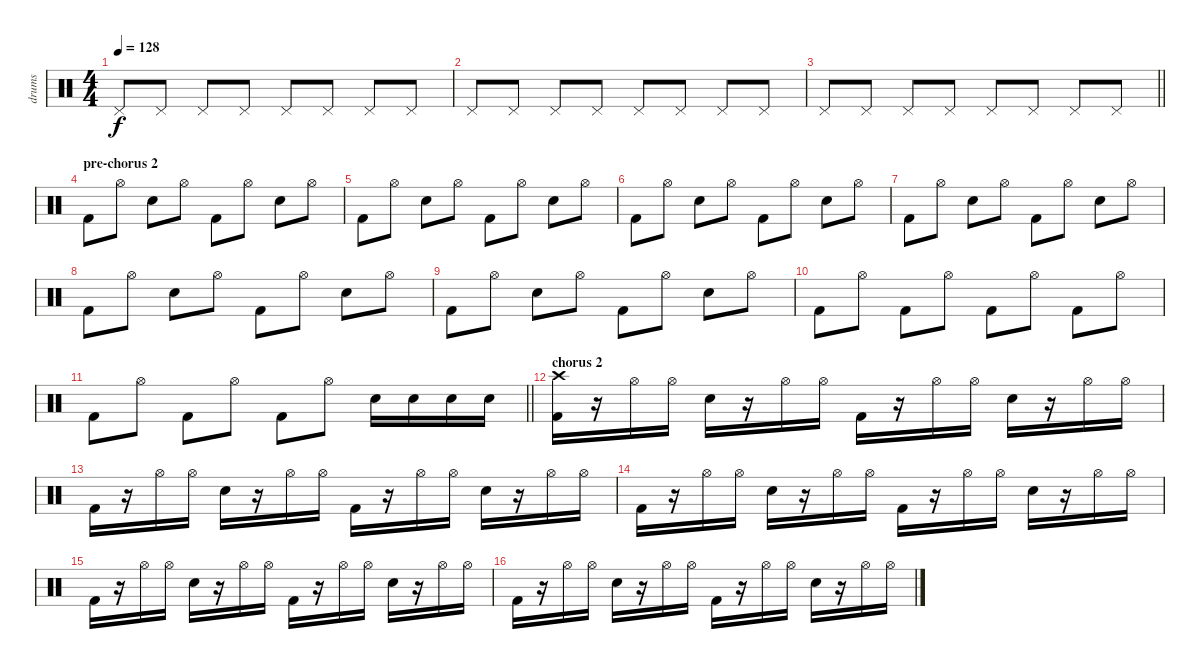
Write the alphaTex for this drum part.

\track ("drums" "drums") {instrument percussion}
\staff {score}
\articulation defaults
\ts (4 4)
\tempo 128
\clef neutral
\ks c "Pedal Hi-Hat (hit)".8{dy f} "Pedal Hi-Hat (hit)".8 "Pedal Hi-Hat (hit)".8 "Pedal Hi-Hat (hit)".8 "Pedal Hi-Hat (hit)".8 "Pedal Hi-Hat (hit)".8 "Pedal Hi-Hat (hit)".8 "Pedal Hi-Hat (hit)".8
|
"Pedal Hi-Hat (hit)".8 "Pedal Hi-Hat (hit)".8 "Pedal Hi-Hat (hit)".8 "Pedal Hi-Hat (hit)".8 "Pedal Hi-Hat (hit)".8 "Pedal Hi-Hat (hit)".8 "Pedal Hi-Hat (hit)".8 "Pedal Hi-Hat (hit)".8 |
\barLineRight lightlight "Pedal Hi-Hat (hit)".8 "Pedal Hi-Hat (hit)".8 "Pedal Hi-Hat (hit)".8 "Pedal Hi-Hat (hit)".8 "Pedal Hi-Hat (hit)".8 "Pedal Hi-Hat (hit)".8 "Pedal Hi-Hat (hit)".8 "Pedal Hi-Hat (hit)".8
|
\section ("" "pre-chorus 2")
"Kick (hit) 2".8 "Hi-Hat (open)".8 "Electric Snare (hit)".8 "Hi-Hat (open)".8 "Kick (hit) 2".8 "Hi-Hat (open)".8 "Electric Snare (hit)".8 "Hi-Hat (open)".8 |
"Kick (hit) 2".8 "Hi-Hat (open)".8 "Electric Snare (hit)".8 "Hi-Hat (open)".8 "Kick (hit) 2".8 "Hi-Hat (open)".8 "Electric Snare (hit)".8 "Hi-Hat (open)".8 |
"Kick (hit) 2".8 "Hi-Hat (open)".8 "Electric Snare (hit)".8 "Hi-Hat (open)".8 "Kick (hit) 2".8 "Hi-Hat (open)".8 "Electric Snare (hit)".8 "Hi-Hat (open)".8 |
"Kick (hit) 2".8 "Hi-Hat (open)".8 "Electric Snare (hit)".8 "Hi-Hat (open)".8 "Kick (hit) 2".8 "Hi-Hat (open)".8 "Electric Snare (hit)".8 "Hi-Hat (open)".8 |
"Kick (hit) 2".8 "Hi-Hat (open)".8 "Electric Snare (hit)".8 "Hi-Hat (open)".8 "Kick (hit) 2".8 "Hi-Hat (open)".8 "Electric Snare (hit)".8 "Hi-Hat (open)".8 |
"Kick (hit) 2".8 "Hi-Hat (open)".8 "Electric Snare (hit)".8 "Hi-Hat (open)".8 "Kick (hit) 2".8 "Hi-Hat (open)".8 "Electric Snare (hit)".8 "Hi-Hat (open)".8 |
"Kick (hit) 2".8 "Hi-Hat (open)".8 "Kick (hit) 2".8 "Hi-Hat (open)".8 "Kick (hit) 2".8 "Hi-Hat (open)".8 "Kick (hit) 2".8 "Hi-Hat (open)".8 |
\barLineRight lightlight "Kick (hit) 2".8 "Hi-Hat (open)".8 "Kick (hit) 2".8 "Hi-Hat (open)".8 "Kick (hit) 2".8 "Hi-Hat (open)".8 "Electric Snare (hit)".16 "Electric Snare (hit)".16 "Electric Snare (hit)".16 "Electric Snare (hit)".16
|
\section ("" "chorus 2")
("Kick (hit) 2" "Crash high (hit)").16 r.16 "Hi-Hat (open)".16 "Hi-Hat (open)".16 "Electric Snare (hit)".16 r.16 "Hi-Hat (open)".16 "Hi-Hat (open)".16 "Kick (hit) 2".16 r.16 "Hi-Hat (open)".16 "Hi-Hat (open)".16 "Electric Snare (hit)".16 r.16 "Hi-Hat (open)".16 "Hi-Hat (open)".16 |
"Kick (hit) 2".16 r.16 "Hi-Hat (open)".16 "Hi-Hat (open)".16 "Electric Snare (hit)".16 r.16 "Hi-Hat (open)".16 "Hi-Hat (open)".16 "Kick (hit) 2".16 r.16 "Hi-Hat (open)".16 "Hi-Hat (open)".16 "Electric Snare (hit)".16 r.16 "Hi-Hat (open)".16 "Hi-Hat (open)".16 |
"Kick (hit) 2".16 r.16 "Hi-Hat (open)".16 "Hi-Hat (open)".16 "Electric Snare (hit)".16 r.16 "Hi-Hat (open)".16 "Hi-Hat (open)".16 "Kick (hit) 2".16 r.16 "Hi-Hat (open)".16 "Hi-Hat (open)".16 "Electric Snare (hit)".16 r.16 "Hi-Hat (open)".16 "Hi-Hat (open)".16 |
"Kick (hit) 2".16 r.16 "Hi-Hat (open)".16 "Hi-Hat (open)".16 "Electric Snare (hit)".16 r.16 "Hi-Hat (open)".16 "Hi-Hat (open)".16 "Kick (hit) 2".16 r.16 "Hi-Hat (open)".16 "Hi-Hat (open)".16 "Electric Snare (hit)".16 r.16 "Hi-Hat (open)".16 "Hi-Hat (open)".16 |
"Kick (hit) 2".16 r.16 "Hi-Hat (open)".16 "Hi-Hat (open)".16 "Electric Snare (hit)".16 r.16 "Hi-Hat (open)".16 "Hi-Hat (open)".16 "Kick (hit) 2".16 r.16 "Hi-Hat (open)".16 "Hi-Hat (open)".16 "Electric Snare (hit)".16 r.16 "Hi-Hat (open)".16 "Hi-Hat (open)".16
